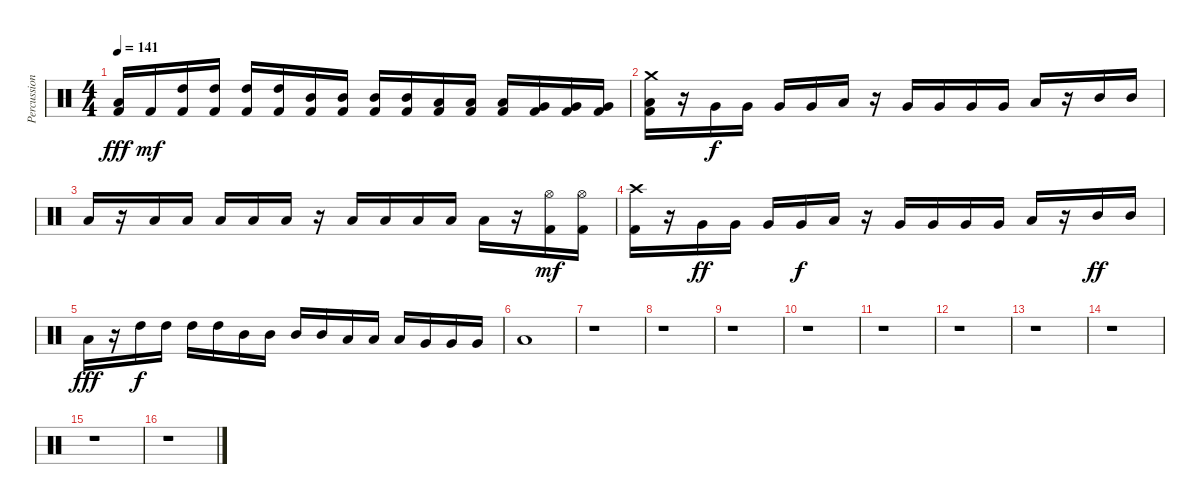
\track ("Percussion" "Percussion") {instrument percussion}
\staff {score}
\articulation defaults
\ts (4 4)
\tempo 141
\clef neutral
\ks c
("Kick (hit) 2" "Low Tom (hit)").16{dy fff} "Kick (hit) 2".16{dy mf} ("Kick (hit) 2" "High Tom (hit)").16 ("Kick (hit) 2" "High Tom (hit)").16 ("Kick (hit) 2" "High Tom (hit)").16 ("Kick (hit) 2" "High Tom (hit)").16 ("Kick (hit) 2" "Mid Tom (hit)").16 ("Kick (hit) 2" "Mid Tom (hit)").16 ("Kick (hit) 2" "Mid Tom (hit)").16 ("Kick (hit) 2" "Mid Tom (hit)").16 ("Kick (hit) 2" "Low Tom (hit)").16 ("Kick (hit) 2" "Low Tom (hit)").16 ("Kick (hit) 2" "Low Tom (hit)").16 ("Kick (hit) 2" "Very Low Tom (hit)").16 ("Kick (hit) 2" "Very Low Tom (hit)").16 ("Kick (hit) 2" "Very Low Tom (hit)").16 |
("Kick (hit) 2" "Low Tom (hit)" "Crash medium (hit)").16 r.16 "Very Low Tom (hit)".16{dy f} "Very Low Tom (hit)".16 "Very Low Tom (hit)".16 "Very Low Tom (hit)".16 "Low Tom (hit)".16 r.16 "Very Low Tom (hit)".16 "Very Low Tom (hit)".16 "Very Low Tom (hit)".16 "Very Low Tom (hit)".16 "Low Tom (hit)".16 r.16 "Mid Tom (hit)".16 "Mid Tom (hit)".16 |
"Low Tom (hit)".16 r.16 "Low Tom (hit)".16 "Low Tom (hit)".16 "Low Tom (hit)".16 "Low Tom (hit)".16 "Low Tom (hit)".16 r.16 "Low Tom (hit)".16 "Low Tom (hit)".16 "Low Tom (hit)".16 "Low Tom (hit)".16 "Low Tom (hit)".16 r.16 ("Kick (hit) 2" "Hi-Hat (open)").16{dy mf} ("Kick (hit) 2" "Hi-Hat (open)").16 |
("Kick (hit) 2" "Crash high (hit)").16 r.16 "Very Low Tom (hit)".16{dy ff} "Very Low Tom (hit)".16 "Very Low Tom (hit)".16 "Very Low Tom (hit)".16{dy f} "Low Tom (hit)".16 r.16 "Very Low Tom (hit)".16 "Very Low Tom (hit)".16 "Very Low Tom (hit)".16 "Very Low Tom (hit)".16 "Low Tom (hit)".16 r.16 "Mid Tom (hit)".16{dy ff} "Mid Tom (hit)".16 |
"Low Tom (hit)".16{dy fff} r.16 "High Tom (hit)".16{dy f} "High Tom (hit)".16 "High Tom (hit)".16 "High Tom (hit)".16 "Mid Tom (hit)".16 "Mid Tom (hit)".16 "Mid Tom (hit)".16 "Mid Tom (hit)".16 "Low Tom (hit)".16 "Low Tom (hit)".16 "Low Tom (hit)".16 "Very Low Tom (hit)".16 "Very Low Tom (hit)".16 "Very Low Tom (hit)".16 |
"Low Floor Tom (hit)".1 |
r.1 |
r.1 |
r.1 |
r.1 |
r.1 |
r.1 |
r.1 |
r.1 |
r.1 |
r.1
